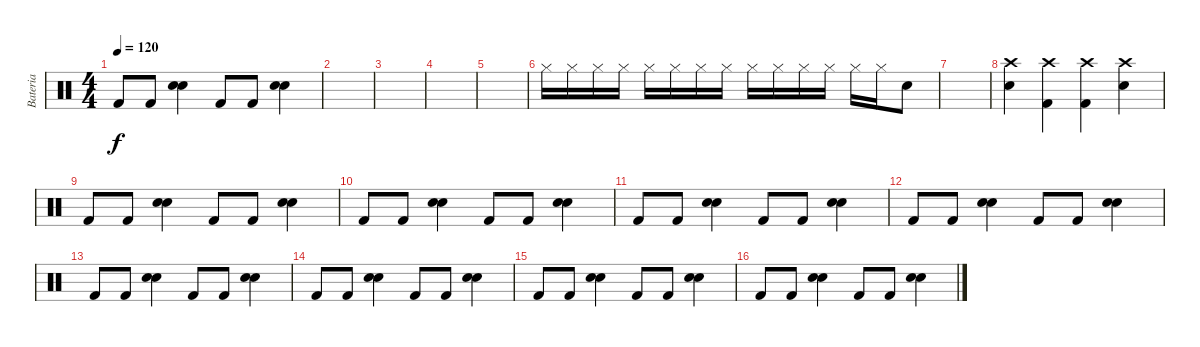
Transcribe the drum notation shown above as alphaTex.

\track ("Bateria" "Bateria") {instrument percussion}
\staff {score}
\articulation defaults
\ts (4 4)
\tempo 120
\clef neutral
\ks c "Kick (hit) 2".8{dy f} "Kick (hit) 2".8
("Hand Clap (hit)" "Snare (hit) 2").4 "Kick (hit) 2".8 "Kick (hit) 2".8 ("Hand Clap (hit)" "Snare (hit) 2").4 |
|
|
|
|
"Hi-Hat (closed)".16 "Hi-Hat (closed)".16 "Hi-Hat (closed)".16 "Hi-Hat (closed)".16 "Hi-Hat (closed)".16 "Hi-Hat (closed)".16 "Hi-Hat (closed)".16 "Hi-Hat (closed)".16 "Hi-Hat (closed)".16 "Hi-Hat (closed)".16 "Hi-Hat (closed)".16 "Hi-Hat (closed)".16 "Hi-Hat (closed)".16 "Hi-Hat (closed)".16 "Snare (hit) 2".8 |
|
("Crash high (hit)" "Snare (hit) 2").4 ("Crash high (hit)" "Kick (hit) 2").4 ("Crash high (hit)" "Kick (hit) 2").4 ("Crash high (hit)" "Snare (hit) 2").4 |
"Kick (hit) 2".8 "Kick (hit) 2".8 ("Hand Clap (hit)" "Snare (hit) 2").4 "Kick (hit) 2".8 "Kick (hit) 2".8 ("Hand Clap (hit)" "Snare (hit) 2").4 |
"Kick (hit) 2".8 "Kick (hit) 2".8 ("Hand Clap (hit)" "Snare (hit) 2").4 "Kick (hit) 2".8 "Kick (hit) 2".8 ("Hand Clap (hit)" "Snare (hit) 2").4 |
"Kick (hit) 2".8 "Kick (hit) 2".8 ("Hand Clap (hit)" "Snare (hit) 2").4 "Kick (hit) 2".8 "Kick (hit) 2".8 ("Hand Clap (hit)" "Snare (hit) 2").4 |
"Kick (hit) 2".8 "Kick (hit) 2".8 ("Hand Clap (hit)" "Snare (hit) 2").4 "Kick (hit) 2".8 "Kick (hit) 2".8 ("Hand Clap (hit)" "Snare (hit) 2").4 |
"Kick (hit) 2".8 "Kick (hit) 2".8 ("Hand Clap (hit)" "Snare (hit) 2").4 "Kick (hit) 2".8 "Kick (hit) 2".8 ("Hand Clap (hit)" "Snare (hit) 2").4 |
"Kick (hit) 2".8 "Kick (hit) 2".8 ("Hand Clap (hit)" "Snare (hit) 2").4 "Kick (hit) 2".8 "Kick (hit) 2".8 ("Hand Clap (hit)" "Snare (hit) 2").4 |
"Kick (hit) 2".8 "Kick (hit) 2".8 ("Hand Clap (hit)" "Snare (hit) 2").4 "Kick (hit) 2".8 "Kick (hit) 2".8 ("Hand Clap (hit)" "Snare (hit) 2").4 |
"Kick (hit) 2".8 "Kick (hit) 2".8 ("Hand Clap (hit)" "Snare (hit) 2").4 "Kick (hit) 2".8 "Kick (hit) 2".8 ("Hand Clap (hit)" "Snare (hit) 2").4
